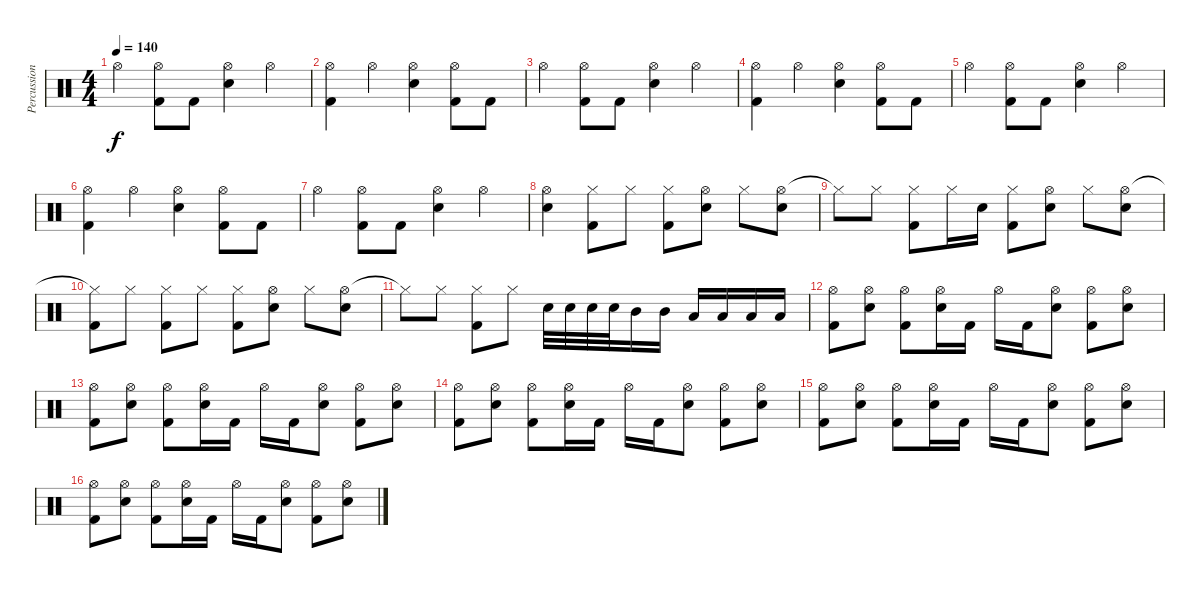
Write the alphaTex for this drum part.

\track ("Percussion" "Percussion") {instrument percussion}
\staff {score}
\articulation defaults
\ts (4 4)
\tempo 140
\clef neutral
\ks c "Hi-Hat (open)".4{dy f}
("Hi-Hat (open)" "Kick (hit) 2").8 "Kick (hit) 2".8 ("Hi-Hat (open)" "Electric Snare (hit)").4 "Hi-Hat (open)".4 |
("Hi-Hat (open)" "Kick (hit) 2").4 "Hi-Hat (open)".4 ("Hi-Hat (open)" "Electric Snare (hit)").4 ("Hi-Hat (open)" "Kick (hit) 2").8 "Kick (hit) 2".8 |
"Hi-Hat (open)".4 ("Hi-Hat (open)" "Kick (hit) 2").8 "Kick (hit) 2".8 ("Hi-Hat (open)" "Electric Snare (hit)").4 "Hi-Hat (open)".4 |
("Hi-Hat (open)" "Kick (hit) 2").4 "Hi-Hat (open)".4 ("Hi-Hat (open)" "Electric Snare (hit)").4 ("Hi-Hat (open)" "Kick (hit) 2").8 "Kick (hit) 2".8 |
"Hi-Hat (open)".4 ("Hi-Hat (open)" "Kick (hit) 2").8 "Kick (hit) 2".8 ("Hi-Hat (open)" "Electric Snare (hit)").4 "Hi-Hat (open)".4 |
("Hi-Hat (open)" "Kick (hit) 2").4 "Hi-Hat (open)".4 ("Hi-Hat (open)" "Electric Snare (hit)").4 ("Hi-Hat (open)" "Kick (hit) 2").8 "Kick (hit) 2".8 |
"Hi-Hat (open)".4 ("Hi-Hat (open)" "Kick (hit) 2").8 "Kick (hit) 2".8 ("Hi-Hat (open)" "Electric Snare (hit)").4 "Hi-Hat (open)".4 |
("Hi-Hat (open)" "Electric Snare (hit)").4 ("Hi-Hat (closed)" "Kick (hit) 2").8 "Hi-Hat (closed)".8 ("Hi-Hat (closed)" "Kick (hit) 2").8 ("Hi-Hat (open)" "Electric Snare (hit)").8 "Hi-Hat (closed)".8 ("Hi-Hat (open)" "Electric Snare (hit)").8 |
"Hi-Hat (closed)"{t}.8 "Hi-Hat (closed)".8 ("Hi-Hat (closed)" "Kick (hit) 2").8 "Hi-Hat (closed)".16 "Electric Snare (hit)".16 ("Hi-Hat (closed)" "Kick (hit) 2").8 ("Hi-Hat (open)" "Electric Snare (hit)").8 "Hi-Hat (closed)".8 ("Hi-Hat (open)" "Electric Snare (hit)").8 |
("Hi-Hat (closed)"{t} "Kick (hit) 2").8 "Hi-Hat (closed)".8 ("Hi-Hat (closed)" "Kick (hit) 2").8 "Hi-Hat (closed)".8 ("Hi-Hat (closed)" "Kick (hit) 2").8 ("Hi-Hat (open)" "Electric Snare (hit)").8 "Hi-Hat (closed)".8 ("Hi-Hat (open)" "Electric Snare (hit)").8 |
"Hi-Hat (closed)"{t}.8 "Hi-Hat (closed)".8 ("Hi-Hat (closed)" "Kick (hit) 2").8 "Hi-Hat (closed)".8 "Electric Snare (hit)".32 "Electric Snare (hit)".32 "Electric Snare (hit)".32 "Electric Snare (hit)".32 "Mid Tom (hit)".16 "Mid Tom (hit)".16 "Low Tom (hit)".16 "Low Tom (hit)".16 "Low Floor Tom (hit)".16 "Low Floor Tom (hit)".16 |
("Hi-Hat (open)" "Kick (hit) 2").8 ("Hi-Hat (open)" "Electric Snare (hit)").8 ("Hi-Hat (open)" "Kick (hit) 2").8 ("Hi-Hat (open)" "Electric Snare (hit)").16 "Kick (hit) 2".16 "Hi-Hat (open)".16 "Kick (hit) 2".16 ("Hi-Hat (open)" "Electric Snare (hit)").8 ("Hi-Hat (open)" "Kick (hit) 2").8 ("Hi-Hat (open)" "Electric Snare (hit)").8 |
("Hi-Hat (open)" "Kick (hit) 2").8 ("Hi-Hat (open)" "Electric Snare (hit)").8 ("Hi-Hat (open)" "Kick (hit) 2").8 ("Hi-Hat (open)" "Electric Snare (hit)").16 "Kick (hit) 2".16 "Hi-Hat (open)".16 "Kick (hit) 2".16 ("Hi-Hat (open)" "Electric Snare (hit)").8 ("Hi-Hat (open)" "Kick (hit) 2").8 ("Hi-Hat (open)" "Electric Snare (hit)").8 |
("Hi-Hat (open)" "Kick (hit) 2").8 ("Hi-Hat (open)" "Electric Snare (hit)").8 ("Hi-Hat (open)" "Kick (hit) 2").8 ("Hi-Hat (open)" "Electric Snare (hit)").16 "Kick (hit) 2".16 "Hi-Hat (open)".16 "Kick (hit) 2".16 ("Hi-Hat (open)" "Electric Snare (hit)").8 ("Hi-Hat (open)" "Kick (hit) 2").8 ("Hi-Hat (open)" "Electric Snare (hit)").8 |
("Hi-Hat (open)" "Kick (hit) 2").8 ("Hi-Hat (open)" "Electric Snare (hit)").8 ("Hi-Hat (open)" "Kick (hit) 2").8 ("Hi-Hat (open)" "Electric Snare (hit)").16 "Kick (hit) 2".16 "Hi-Hat (open)".16 "Kick (hit) 2".16 ("Hi-Hat (open)" "Electric Snare (hit)").8 ("Hi-Hat (open)" "Kick (hit) 2").8 ("Hi-Hat (open)" "Electric Snare (hit)").8 |
("Hi-Hat (open)" "Kick (hit) 2").8 ("Hi-Hat (open)" "Electric Snare (hit)").8 ("Hi-Hat (open)" "Kick (hit) 2").8 ("Hi-Hat (open)" "Electric Snare (hit)").16 "Kick (hit) 2".16 "Hi-Hat (open)".16 "Kick (hit) 2".16 ("Hi-Hat (open)" "Electric Snare (hit)").8 ("Hi-Hat (open)" "Kick (hit) 2").8 ("Hi-Hat (open)" "Electric Snare (hit)").8
